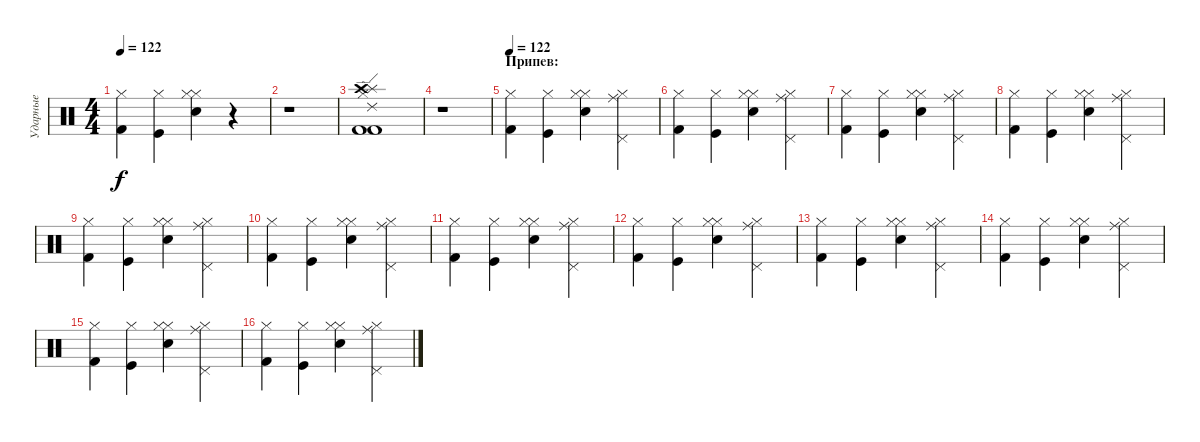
\track ("Ударные" "Ударные") {instrument percussion}
\staff {score}
\articulation defaults
\ts (4 4)
\tempo 122
\clef neutral
\ks c
("Hi-Hat (closed)" "Kick (hit) 2").4{dy f} ("Hi-Hat (closed)" "Kick (hit)").4 ("Hi-Hat (closed)" "Hi-Hat (closed)" "Electric Snare (hit)").4 r.4 |
r.1 |
("Kick (hit) 2" "Splash (hit)" "Hi-Hat (closed)" "Crash high (hit)" "Kick (hit) 2" "Ride (edge) 2").1 |
r.1 |
\section ("" "Припев:")
\tempo 122
("Hi-Hat (closed)" "Kick (hit) 2").4 ("Hi-Hat (closed)" "Kick (hit)").4 ("Hi-Hat (closed)" "Hi-Hat (closed)" "Electric Snare (hit)").4 ("Hi-Hat (closed)" "Ride (middle)" "Pedal Hi-Hat (hit)").4 |
("Hi-Hat (closed)" "Kick (hit) 2").4 ("Hi-Hat (closed)" "Kick (hit)").4 ("Hi-Hat (closed)" "Hi-Hat (closed)" "Electric Snare (hit)").4 ("Hi-Hat (closed)" "Ride (middle)" "Pedal Hi-Hat (hit)").4 |
("Hi-Hat (closed)" "Kick (hit) 2").4 ("Hi-Hat (closed)" "Kick (hit)").4 ("Hi-Hat (closed)" "Hi-Hat (closed)" "Electric Snare (hit)").4 ("Hi-Hat (closed)" "Ride (middle)" "Pedal Hi-Hat (hit)").4 |
("Hi-Hat (closed)" "Kick (hit) 2").4 ("Hi-Hat (closed)" "Kick (hit)").4 ("Hi-Hat (closed)" "Hi-Hat (closed)" "Electric Snare (hit)").4 ("Hi-Hat (closed)" "Ride (middle)" "Pedal Hi-Hat (hit)").4 |
("Hi-Hat (closed)" "Kick (hit) 2").4 ("Hi-Hat (closed)" "Kick (hit)").4 ("Hi-Hat (closed)" "Hi-Hat (closed)" "Electric Snare (hit)").4 ("Hi-Hat (closed)" "Ride (middle)" "Pedal Hi-Hat (hit)").4 |
("Hi-Hat (closed)" "Kick (hit) 2").4 ("Hi-Hat (closed)" "Kick (hit)").4 ("Hi-Hat (closed)" "Hi-Hat (closed)" "Electric Snare (hit)").4 ("Hi-Hat (closed)" "Ride (middle)" "Pedal Hi-Hat (hit)").4 |
("Hi-Hat (closed)" "Kick (hit) 2").4 ("Hi-Hat (closed)" "Kick (hit)").4 ("Hi-Hat (closed)" "Hi-Hat (closed)" "Electric Snare (hit)").4 ("Hi-Hat (closed)" "Ride (middle)" "Pedal Hi-Hat (hit)").4 |
("Hi-Hat (closed)" "Kick (hit) 2").4 ("Hi-Hat (closed)" "Kick (hit)").4 ("Hi-Hat (closed)" "Hi-Hat (closed)" "Electric Snare (hit)").4 ("Hi-Hat (closed)" "Ride (middle)" "Pedal Hi-Hat (hit)").4 |
("Hi-Hat (closed)" "Kick (hit) 2").4 ("Hi-Hat (closed)" "Kick (hit)").4 ("Hi-Hat (closed)" "Hi-Hat (closed)" "Electric Snare (hit)").4 ("Hi-Hat (closed)" "Ride (middle)" "Pedal Hi-Hat (hit)").4 |
("Hi-Hat (closed)" "Kick (hit) 2").4 ("Hi-Hat (closed)" "Kick (hit)").4 ("Hi-Hat (closed)" "Hi-Hat (closed)" "Electric Snare (hit)").4 ("Hi-Hat (closed)" "Ride (middle)" "Pedal Hi-Hat (hit)").4 |
("Hi-Hat (closed)" "Kick (hit) 2").4 ("Hi-Hat (closed)" "Kick (hit)").4 ("Hi-Hat (closed)" "Hi-Hat (closed)" "Electric Snare (hit)").4 ("Hi-Hat (closed)" "Ride (middle)" "Pedal Hi-Hat (hit)").4 |
("Hi-Hat (closed)" "Kick (hit) 2").4 ("Hi-Hat (closed)" "Kick (hit)").4 ("Hi-Hat (closed)" "Hi-Hat (closed)" "Electric Snare (hit)").4 ("Hi-Hat (closed)" "Ride (middle)" "Pedal Hi-Hat (hit)").4
